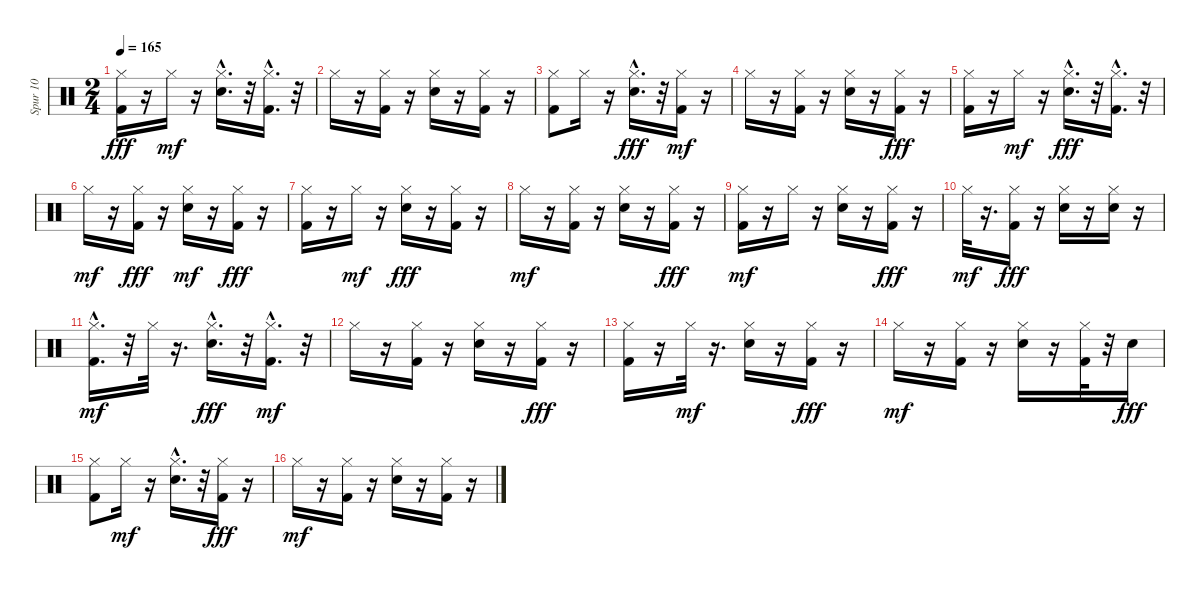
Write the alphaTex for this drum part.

\track ("Spur 10" "Spur 10") {instrument percussion}
\staff {score}
\articulation defaults
\ts (2 4)
\tempo 165
\clef neutral
\ks c
("Hi-Hat (closed)" "Kick (hit) 2").16{dy fff} r.16 "Hi-Hat (closed)".16{dy mf} r.16 ("Electric Snare (hit)"{hac} "Hi-Hat (closed)").16{d} r.32 ("Kick (hit) 2"{hac} "Hi-Hat (closed)").16{d} r.32 |
"Hi-Hat (closed)".16 r.16 ("Kick (hit) 2" "Hi-Hat (closed)").16 r.16 ("Electric Snare (hit)" "Hi-Hat (closed)").16 r.16 ("Kick (hit) 2" "Hi-Hat (closed)").16 r.16 |
("Kick (hit) 2" "Hi-Hat (closed)").8 "Hi-Hat (closed)".16 r.16 ("Hi-Hat (closed)" "Electric Snare (hit)"{hac}).16{d dy fff} r.32 ("Kick (hit) 2" "Hi-Hat (closed)").16{dy mf} r.16 |
"Hi-Hat (closed)".16 r.16 ("Kick (hit) 2" "Hi-Hat (closed)").16 r.16 ("Electric Snare (hit)" "Hi-Hat (closed)").16 r.16 ("Hi-Hat (closed)" "Kick (hit) 2").16{dy fff} r.16 |
("Hi-Hat (closed)" "Kick (hit) 2").16 r.16 "Hi-Hat (closed)".16{dy mf} r.16 ("Hi-Hat (closed)" "Electric Snare (hit)"{hac}).16{d dy fff} r.32 ("Hi-Hat (closed)" "Kick (hit) 2"{hac}).16{d} r.32 |
"Hi-Hat (closed)".16{dy mf} r.16 ("Hi-Hat (closed)" "Kick (hit) 2").16{dy fff} r.16 ("Electric Snare (hit)" "Hi-Hat (closed)").16{dy mf} r.16 ("Hi-Hat (closed)" "Kick (hit) 2").16{dy fff} r.16 |
("Hi-Hat (closed)" "Kick (hit) 2").16 r.16 "Hi-Hat (closed)".16{dy mf} r.16 ("Hi-Hat (closed)" "Electric Snare (hit)").16{dy fff} r.16 ("Hi-Hat (closed)" "Kick (hit) 2").16 r.16 |
"Hi-Hat (closed)".16{dy mf} r.16 ("Kick (hit) 2" "Hi-Hat (closed)").16 r.16 ("Electric Snare (hit)" "Hi-Hat (closed)").16 r.16 ("Hi-Hat (closed)" "Kick (hit) 2").16{dy fff} r.16 |
("Kick (hit) 2" "Hi-Hat (closed)").16{dy mf} r.16 "Hi-Hat (closed)".16 r.16 ("Electric Snare (hit)" "Hi-Hat (closed)").16 r.16 ("Hi-Hat (closed)" "Kick (hit) 2").16{dy fff} r.16 |
"Hi-Hat (closed)".32{dy mf} r.16{d} ("Hi-Hat (closed)" "Kick (hit) 2").16{dy fff} r.16 ("Hi-Hat (closed)" "Electric Snare (hit)").16 r.16 ("Hi-Hat (closed)" "Electric Snare (hit)").16 r.16 |
("Kick (hit) 2"{hac} "Hi-Hat (closed)").16{d dy mf} r.32 "Hi-Hat (closed)".32 r.16{d} ("Hi-Hat (closed)" "Electric Snare (hit)"{hac}).16{d dy fff} r.32 ("Kick (hit) 2"{hac} "Hi-Hat (closed)").16{d dy mf} r.32 |
"Hi-Hat (closed)".16 r.16 ("Kick (hit) 2" "Hi-Hat (closed)").16 r.16 ("Electric Snare (hit)" "Hi-Hat (closed)").16 r.16 ("Hi-Hat (closed)" "Kick (hit) 2").16{dy fff} r.16 |
("Hi-Hat (closed)" "Kick (hit) 2").16 r.16 "Hi-Hat (closed)".32{dy mf} r.16{d} ("Electric Snare (hit)" "Hi-Hat (closed)").16 r.16 ("Hi-Hat (closed)" "Kick (hit) 2").16{dy fff} r.16 |
"Hi-Hat (closed)".16{dy mf} r.16 ("Kick (hit) 2" "Hi-Hat (closed)").16 r.16 ("Electric Snare (hit)" "Hi-Hat (closed)").16 r.16 ("Kick (hit) 2" "Hi-Hat (closed)").32 r.32 "Electric Snare (hit)".16{dy fff} |
("Hi-Hat (closed)" "Kick (hit) 2").8 "Hi-Hat (closed)".16{dy mf} r.16 ("Electric Snare (hit)"{hac} "Hi-Hat (closed)").16{d} r.32 ("Hi-Hat (closed)" "Kick (hit) 2").16{dy fff} r.16 |
"Hi-Hat (closed)".16{dy mf} r.16 ("Kick (hit) 2" "Hi-Hat (closed)").16 r.16 ("Electric Snare (hit)" "Hi-Hat (closed)").16 r.16 ("Kick (hit) 2" "Hi-Hat (closed)").16 r.16
